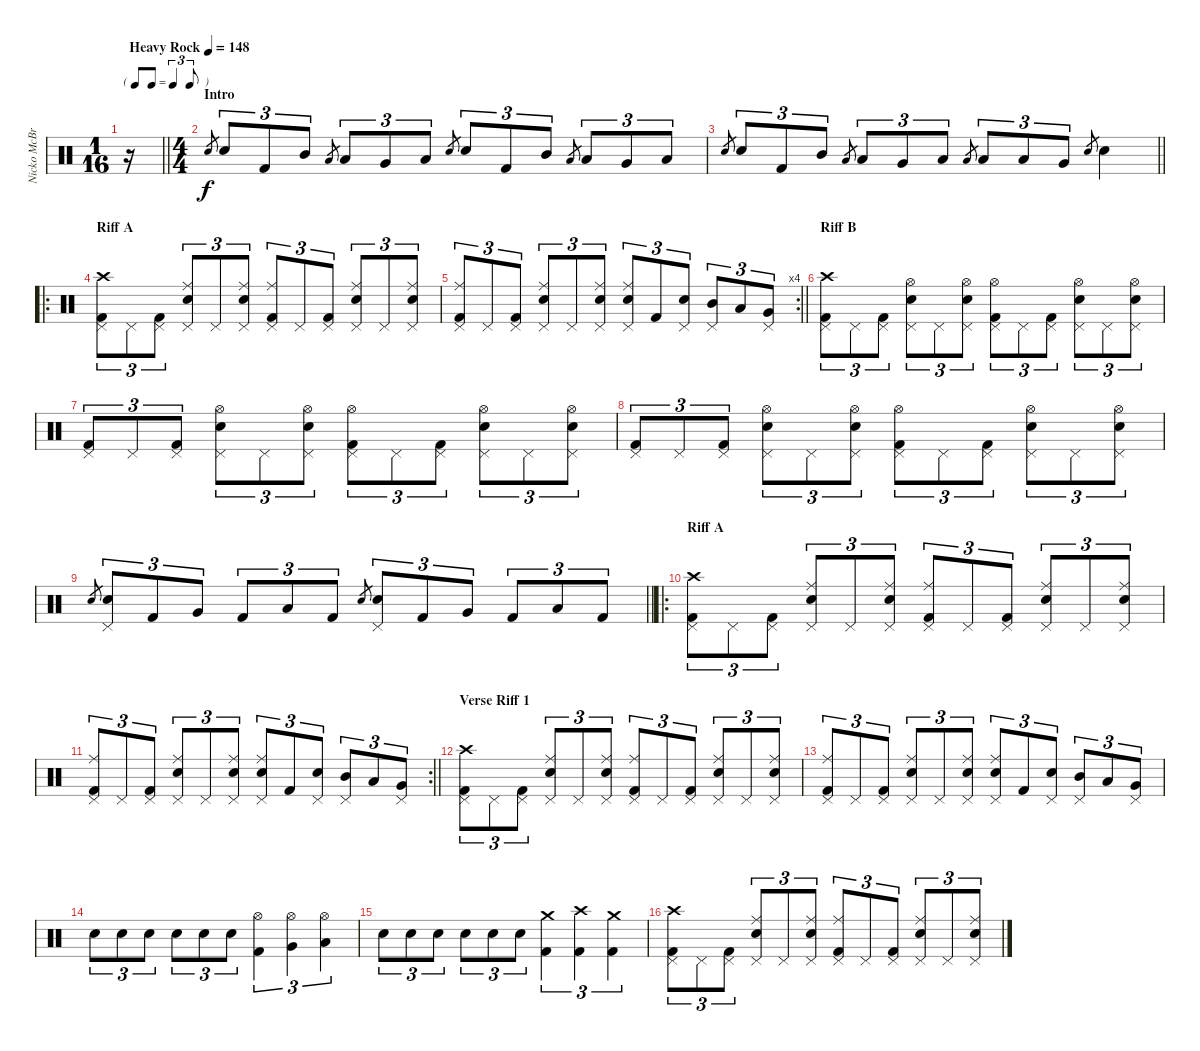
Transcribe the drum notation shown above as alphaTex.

\track ("Nicko McBrain" "Nicko McBr") {instrument percussion}
\staff {score}
\articulation defaults
\ts (1 16)
\tf triplet8th
\tempo (148 "Heavy Rock")
\clef neutral
\barLineRight lightlight
\ks c
r.16{dy f} |
\ts (4 4)
\section ("" "Intro")
"Snare (hit) 2".8{gr} "Snare (hit) 2".8{tu (3 2)} "Kick (hit) 2".8{tu (3 2)} "Mid Tom (hit)".8{tu (3 2)} "Low Tom (hit)".8{gr} "Low Tom (hit)".8{tu (3 2)} "Very Low Tom (hit)".8{tu (3 2)} "Low Floor Tom (hit)".8{tu (3 2)} "Snare (hit) 2".8{gr} "Snare (hit) 2".8{tu (3 2)} "Kick (hit) 2".8{tu (3 2)} "Mid Tom (hit)".8{tu (3 2)} "Low Tom (hit)".8{gr} "Low Tom (hit)".8{tu (3 2)} "Very Low Tom (hit)".8{tu (3 2)} "Low Floor Tom (hit)".8{tu (3 2)} |
\barLineRight lightlight "Snare (hit) 2".8{gr} "Snare (hit) 2".8{tu (3 2)} "Kick (hit) 2".8{tu (3 2)} "Mid Tom (hit)".8{tu (3 2)} "Low Tom (hit)".8{gr} "Low Tom (hit)".8{tu (3 2)} "Very Low Tom (hit)".8{tu (3 2)} "Low Floor Tom (hit)".8{tu (3 2)} "Low Tom (hit)".8{gr} "Low Tom (hit)".8{tu (3 2)} "Low Tom (hit)".8{tu (3 2)} "Very Low Tom (hit)".8{tu (3 2)} "Snare (hit) 2".8{gr} "Snare (hit) 2".4
|
\ro
\section ("" "Riff A")
("Kick (hit) 2" "Pedal Hi-Hat (hit)" "Crash high (hit)").8{tu (3 2)} "Pedal Hi-Hat (hit)".8{tu (3 2)} ("Kick (hit) 2" "Pedal Hi-Hat (hit)").8{tu (3 2)} ("Snare (hit) 2" "Pedal Hi-Hat (hit)" "Ride (middle)").8{tu (3 2)} "Pedal Hi-Hat (hit)".8{tu (3 2)} ("Snare (hit) 2" "Pedal Hi-Hat (hit)" "Ride (middle)").8{tu (3 2)} ("Kick (hit) 2" "Pedal Hi-Hat (hit)" "Ride (middle)").8{tu (3 2)} "Pedal Hi-Hat (hit)".8{tu (3 2)} ("Kick (hit) 2" "Pedal Hi-Hat (hit)").8{tu (3 2)} ("Snare (hit) 2" "Pedal Hi-Hat (hit)" "Ride (middle)").8{tu (3 2)} "Pedal Hi-Hat (hit)".8{tu (3 2)} ("Snare (hit) 2" "Pedal Hi-Hat (hit)" "Ride (middle)").8{tu (3 2)} |
\rc 4
\barLineRight lightlight
("Kick (hit) 2" "Pedal Hi-Hat (hit)" "Ride (middle)").8{tu (3 2)} "Pedal Hi-Hat (hit)".8{tu (3 2)} ("Kick (hit) 2" "Pedal Hi-Hat (hit)").8{tu (3 2)} ("Snare (hit) 2" "Pedal Hi-Hat (hit)" "Ride (middle)").8{tu (3 2)} "Pedal Hi-Hat (hit)".8{tu (3 2)} ("Snare (hit) 2" "Pedal Hi-Hat (hit)" "Ride (middle)").8{tu (3 2)} ("Snare (hit) 2" "Pedal Hi-Hat (hit)" "Ride (middle)").8{tu (3 2)} "Kick (hit) 2".8{tu (3 2)} ("Snare (hit) 2" "Pedal Hi-Hat (hit)").8{tu (3 2)} ("Mid Tom (hit)" "Pedal Hi-Hat (hit)").8{tu (3 2)} "Low Tom (hit)".8{tu (3 2)} ("Very Low Tom (hit)" "Pedal Hi-Hat (hit)").8{tu (3 2)} |
\section ("" "Riff B")
("Kick (hit) 2" "Pedal Hi-Hat (hit)" "Crash high (hit)").8{tu (3 2)} "Pedal Hi-Hat (hit)".8{tu (3 2)} ("Kick (hit) 2" "Pedal Hi-Hat (hit)").8{tu (3 2)} ("Snare (hit) 2" "Pedal Hi-Hat (hit)" "Hi-Hat (open)").8{tu (3 2)} "Pedal Hi-Hat (hit)".8{tu (3 2)} ("Snare (hit) 2" "Pedal Hi-Hat (hit)" "Hi-Hat (open)").8{tu (3 2)} ("Kick (hit) 2" "Pedal Hi-Hat (hit)" "Hi-Hat (open)").8{tu (3 2)} "Pedal Hi-Hat (hit)".8{tu (3 2)} ("Kick (hit) 2" "Pedal Hi-Hat (hit)").8{tu (3 2)} ("Snare (hit) 2" "Pedal Hi-Hat (hit)" "Hi-Hat (open)").8{tu (3 2)} "Pedal Hi-Hat (hit)".8{tu (3 2)} ("Snare (hit) 2" "Pedal Hi-Hat (hit)" "Hi-Hat (open)").8{tu (3 2)} |
("Kick (hit) 2" "Pedal Hi-Hat (hit)").8{tu (3 2)} "Pedal Hi-Hat (hit)".8{tu (3 2)} ("Kick (hit) 2" "Pedal Hi-Hat (hit)").8{tu (3 2)} ("Snare (hit) 2" "Pedal Hi-Hat (hit)" "Hi-Hat (open)").8{tu (3 2)} "Pedal Hi-Hat (hit)".8{tu (3 2)} ("Snare (hit) 2" "Pedal Hi-Hat (hit)" "Hi-Hat (open)").8{tu (3 2)} ("Kick (hit) 2" "Pedal Hi-Hat (hit)" "Hi-Hat (open)").8{tu (3 2)} "Pedal Hi-Hat (hit)".8{tu (3 2)} ("Kick (hit) 2" "Pedal Hi-Hat (hit)").8{tu (3 2)} ("Snare (hit) 2" "Pedal Hi-Hat (hit)" "Hi-Hat (open)").8{tu (3 2)} "Pedal Hi-Hat (hit)".8{tu (3 2)} ("Snare (hit) 2" "Pedal Hi-Hat (hit)" "Hi-Hat (open)").8{tu (3 2)} |
("Kick (hit) 2" "Pedal Hi-Hat (hit)").8{tu (3 2)} "Pedal Hi-Hat (hit)".8{tu (3 2)} ("Kick (hit) 2" "Pedal Hi-Hat (hit)").8{tu (3 2)} ("Snare (hit) 2" "Pedal Hi-Hat (hit)" "Hi-Hat (open)").8{tu (3 2)} "Pedal Hi-Hat (hit)".8{tu (3 2)} ("Snare (hit) 2" "Pedal Hi-Hat (hit)" "Hi-Hat (open)").8{tu (3 2)} ("Kick (hit) 2" "Pedal Hi-Hat (hit)" "Hi-Hat (open)").8{tu (3 2)} "Pedal Hi-Hat (hit)".8{tu (3 2)} ("Kick (hit) 2" "Pedal Hi-Hat (hit)").8{tu (3 2)} ("Snare (hit) 2" "Pedal Hi-Hat (hit)" "Hi-Hat (open)").8{tu (3 2)} "Pedal Hi-Hat (hit)".8{tu (3 2)} ("Snare (hit) 2" "Pedal Hi-Hat (hit)" "Hi-Hat (open)").8{tu (3 2)} |
\barLineRight lightlight "Snare (hit) 2".8{gr}
("Snare (hit) 2" "Pedal Hi-Hat (hit)").8{tu (3 2)} "Kick (hit) 2".8{tu (3 2)} "Very Low Tom (hit)".8{tu (3 2)} "Kick (hit) 2".8{tu (3 2)} "Low Floor Tom (hit)".8{tu (3 2)} "Kick (hit) 2".8{tu (3 2)} "Snare (hit) 2".8{gr} ("Snare (hit) 2" "Pedal Hi-Hat (hit)").8{tu (3 2)} "Kick (hit) 2".8{tu (3 2)} "Very Low Tom (hit)".8{tu (3 2)} "Kick (hit) 2".8{tu (3 2)} "Low Floor Tom (hit)".8{tu (3 2)} "Kick (hit) 2".8{tu (3 2)} |
\ro
\section ("" "Riff A")
("Kick (hit) 2" "Pedal Hi-Hat (hit)" "Crash high (hit)").8{tu (3 2)} "Pedal Hi-Hat (hit)".8{tu (3 2)} ("Kick (hit) 2" "Pedal Hi-Hat (hit)").8{tu (3 2)} ("Snare (hit) 2" "Pedal Hi-Hat (hit)" "Ride (middle)").8{tu (3 2)} "Pedal Hi-Hat (hit)".8{tu (3 2)} ("Snare (hit) 2" "Pedal Hi-Hat (hit)" "Ride (middle)").8{tu (3 2)} ("Kick (hit) 2" "Pedal Hi-Hat (hit)" "Ride (middle)").8{tu (3 2)} "Pedal Hi-Hat (hit)".8{tu (3 2)} ("Kick (hit) 2" "Pedal Hi-Hat (hit)").8{tu (3 2)} ("Snare (hit) 2" "Pedal Hi-Hat (hit)" "Ride (middle)").8{tu (3 2)} "Pedal Hi-Hat (hit)".8{tu (3 2)} ("Snare (hit) 2" "Pedal Hi-Hat (hit)" "Ride (middle)").8{tu (3 2)} |
\rc 2
\barLineRight lightlight
("Kick (hit) 2" "Pedal Hi-Hat (hit)" "Ride (middle)").8{tu (3 2)} "Pedal Hi-Hat (hit)".8{tu (3 2)} ("Kick (hit) 2" "Pedal Hi-Hat (hit)").8{tu (3 2)} ("Snare (hit) 2" "Pedal Hi-Hat (hit)" "Ride (middle)").8{tu (3 2)} "Pedal Hi-Hat (hit)".8{tu (3 2)} ("Snare (hit) 2" "Pedal Hi-Hat (hit)" "Ride (middle)").8{tu (3 2)} ("Snare (hit) 2" "Pedal Hi-Hat (hit)" "Ride (middle)").8{tu (3 2)} "Kick (hit) 2".8{tu (3 2)} ("Snare (hit) 2" "Pedal Hi-Hat (hit)").8{tu (3 2)} ("Mid Tom (hit)" "Pedal Hi-Hat (hit)").8{tu (3 2)} "Low Tom (hit)".8{tu (3 2)} ("Very Low Tom (hit)" "Pedal Hi-Hat (hit)").8{tu (3 2)} |
\section ("" "Verse Riff 1")
("Kick (hit) 2" "Pedal Hi-Hat (hit)" "Crash high (hit)").8{tu (3 2)} "Pedal Hi-Hat (hit)".8{tu (3 2)} ("Kick (hit) 2" "Pedal Hi-Hat (hit)").8{tu (3 2)} ("Snare (hit) 2" "Pedal Hi-Hat (hit)" "Ride (middle)").8{tu (3 2)} "Pedal Hi-Hat (hit)".8{tu (3 2)} ("Snare (hit) 2" "Pedal Hi-Hat (hit)" "Ride (middle)").8{tu (3 2)} ("Kick (hit) 2" "Pedal Hi-Hat (hit)" "Ride (middle)").8{tu (3 2)} "Pedal Hi-Hat (hit)".8{tu (3 2)} ("Kick (hit) 2" "Pedal Hi-Hat (hit)").8{tu (3 2)} ("Snare (hit) 2" "Pedal Hi-Hat (hit)" "Ride (middle)").8{tu (3 2)} "Pedal Hi-Hat (hit)".8{tu (3 2)} ("Snare (hit) 2" "Pedal Hi-Hat (hit)" "Ride (middle)").8{tu (3 2)} |
("Kick (hit) 2" "Pedal Hi-Hat (hit)" "Ride (middle)").8{tu (3 2)} "Pedal Hi-Hat (hit)".8{tu (3 2)} ("Kick (hit) 2" "Pedal Hi-Hat (hit)").8{tu (3 2)} ("Snare (hit) 2" "Pedal Hi-Hat (hit)" "Ride (middle)").8{tu (3 2)} "Pedal Hi-Hat (hit)".8{tu (3 2)} ("Snare (hit) 2" "Pedal Hi-Hat (hit)" "Ride (middle)").8{tu (3 2)} ("Snare (hit) 2" "Pedal Hi-Hat (hit)" "Ride (middle)").8{tu (3 2)} "Kick (hit) 2".8{tu (3 2)} ("Snare (hit) 2" "Pedal Hi-Hat (hit)").8{tu (3 2)} ("Mid Tom (hit)" "Pedal Hi-Hat (hit)").8{tu (3 2)} "Low Tom (hit)".8{tu (3 2)} ("Very Low Tom (hit)" "Pedal Hi-Hat (hit)").8{tu (3 2)} |
"Snare (hit) 2".8{tu (3 2)} "Snare (hit) 2".8{tu (3 2)} "Snare (hit) 2".8{tu (3 2)} "Snare (hit) 2".8{tu (3 2)} "Snare (hit) 2".8{tu (3 2)} "Snare (hit) 2".8{tu (3 2)} ("Kick (hit) 2" "Hi-Hat (open)").4{tu (3 2)} ("Very Low Tom (hit)" "Hi-Hat (open)").4{tu (3 2)} ("Low Floor Tom (hit)" "Hi-Hat (open)").4{tu (3 2)} |
"Snare (hit) 2".8{tu (3 2)} "Snare (hit) 2".8{tu (3 2)} "Snare (hit) 2".8{tu (3 2)} "Snare (hit) 2".8{tu (3 2)} "Snare (hit) 2".8{tu (3 2)} "Snare (hit) 2".8{tu (3 2)} ("Kick (hit) 2" "Crash medium (hit)").4{tu (3 2)} ("Kick (hit) 2" "Crash high (hit)").4{tu (3 2)} ("Kick (hit) 2" "Crash medium (hit)").4{tu (3 2)} |
("Kick (hit) 2" "Pedal Hi-Hat (hit)" "Crash high (hit)").8{tu (3 2)} "Pedal Hi-Hat (hit)".8{tu (3 2)} ("Kick (hit) 2" "Pedal Hi-Hat (hit)").8{tu (3 2)} ("Snare (hit) 2" "Pedal Hi-Hat (hit)" "Ride (middle)").8{tu (3 2)} "Pedal Hi-Hat (hit)".8{tu (3 2)} ("Snare (hit) 2" "Pedal Hi-Hat (hit)" "Ride (middle)").8{tu (3 2)} ("Kick (hit) 2" "Pedal Hi-Hat (hit)" "Ride (middle)").8{tu (3 2)} "Pedal Hi-Hat (hit)".8{tu (3 2)} ("Kick (hit) 2" "Pedal Hi-Hat (hit)").8{tu (3 2)} ("Snare (hit) 2" "Pedal Hi-Hat (hit)" "Ride (middle)").8{tu (3 2)} "Pedal Hi-Hat (hit)".8{tu (3 2)} ("Snare (hit) 2" "Pedal Hi-Hat (hit)" "Ride (middle)").8{tu (3 2)}
